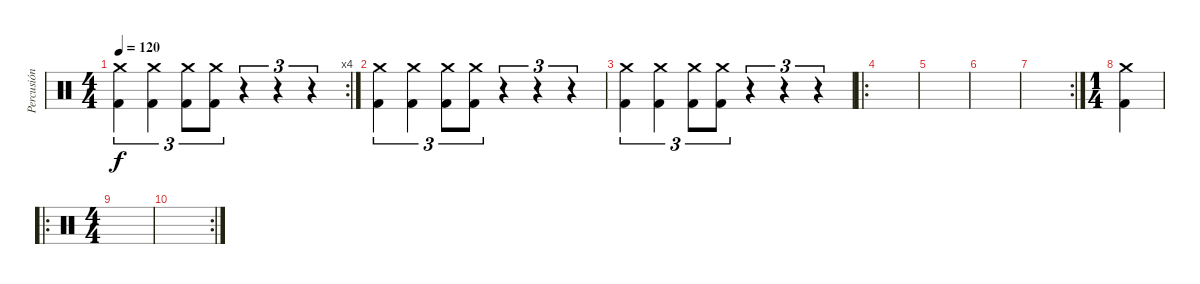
\track ("Percusión" "Percusión") {instrument percussion}
\staff {score}
\articulation defaults
\rc 4
\ts (4 4)
\tempo 120
\clef neutral
\ks c
("Crash medium (hit)" "Kick (hit) 2").4{tu (3 2) dy f} ("Crash medium (hit)" "Kick (hit) 2").4{tu (3 2)} ("Crash medium (hit)" "Kick (hit) 2").8{tu (3 2)} ("Crash medium (hit)" "Kick (hit) 2").8{tu (3 2)} r.4{tu (3 2)} r.4{tu (3 2)} r.4{tu (3 2)} |
("Crash medium (hit)" "Kick (hit) 2").4{tu (3 2)} ("Crash medium (hit)" "Kick (hit) 2").4{tu (3 2)} ("Crash medium (hit)" "Kick (hit) 2").8{tu (3 2)} ("Crash medium (hit)" "Kick (hit) 2").8{tu (3 2)} r.4{tu (3 2)} r.4{tu (3 2)} r.4{tu (3 2)} |
("Crash medium (hit)" "Kick (hit) 2").4{tu (3 2)} ("Crash medium (hit)" "Kick (hit) 2").4{tu (3 2)} ("Crash medium (hit)" "Kick (hit) 2").8{tu (3 2)} ("Crash medium (hit)" "Kick (hit) 2").8{tu (3 2)} r.4{tu (3 2)} r.4{tu (3 2)} r.4{tu (3 2)} |
\ro
|
|
|
\rc 2
|
\ts (1 4)
("Crash medium (hit)" "Kick (hit) 2").4 |
\ro
\ts (4 4)
|
\rc 2
